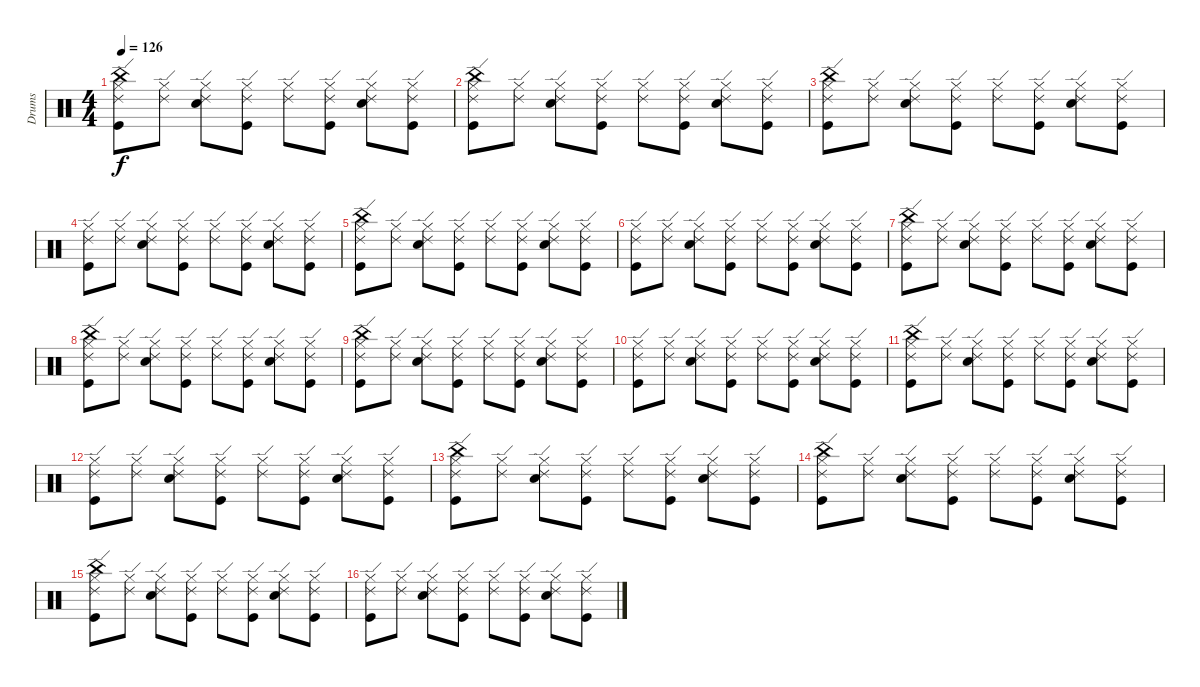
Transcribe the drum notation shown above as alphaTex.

\track ("Drums" "Drums") {instrument percussion}
\staff {score}
\articulation defaults
\ts (4 4)
\tempo 126
\clef neutral
\ks c
("Hi-Hat (closed)" "China (hit)" "Ride (edge) 2" "Kick (hit)").8{dy f} ("Hi-Hat (closed)" "Ride (edge) 2").8 ("Hi-Hat (closed)" "Ride (edge) 2" "Electric Snare (hit)").8 ("Hi-Hat (closed)" "Ride (edge) 2" "Kick (hit)").8 ("Hi-Hat (closed)" "Ride (edge) 2").8 ("Hi-Hat (closed)" "Ride (edge) 2" "Kick (hit)").8 ("Hi-Hat (closed)" "Ride (edge) 2" "Electric Snare (hit)").8 ("Hi-Hat (closed)" "Ride (edge) 2" "Kick (hit)").8 |
("Hi-Hat (closed)" "China (hit)" "Ride (edge) 2" "Kick (hit)").8 ("Hi-Hat (closed)" "Ride (edge) 2").8 ("Hi-Hat (closed)" "Ride (edge) 2" "Electric Snare (hit)").8 ("Hi-Hat (closed)" "Ride (edge) 2" "Kick (hit)").8 ("Hi-Hat (closed)" "Ride (edge) 2").8 ("Hi-Hat (closed)" "Ride (edge) 2" "Kick (hit)").8 ("Hi-Hat (closed)" "Ride (edge) 2" "Electric Snare (hit)").8 ("Hi-Hat (closed)" "Ride (edge) 2" "Kick (hit)").8 |
("Hi-Hat (closed)" "China (hit)" "Ride (edge) 2" "Kick (hit)").8 ("Hi-Hat (closed)" "Ride (edge) 2").8 ("Hi-Hat (closed)" "Ride (edge) 2" "Electric Snare (hit)").8 ("Hi-Hat (closed)" "Ride (edge) 2" "Kick (hit)").8 ("Hi-Hat (closed)" "Ride (edge) 2").8 ("Hi-Hat (closed)" "Ride (edge) 2" "Kick (hit)").8 ("Hi-Hat (closed)" "Ride (edge) 2" "Electric Snare (hit)").8 ("Hi-Hat (closed)" "Ride (edge) 2" "Kick (hit)").8 |
("Hi-Hat (closed)" "Ride (edge) 2" "Kick (hit)").8 ("Hi-Hat (closed)" "Ride (edge) 2").8 ("Hi-Hat (closed)" "Ride (edge) 2" "Electric Snare (hit)").8 ("Hi-Hat (closed)" "Ride (edge) 2" "Kick (hit)").8 ("Hi-Hat (closed)" "Ride (edge) 2").8 ("Hi-Hat (closed)" "Ride (edge) 2" "Kick (hit)").8 ("Hi-Hat (closed)" "Ride (edge) 2" "Electric Snare (hit)").8 ("Hi-Hat (closed)" "Ride (edge) 2" "Kick (hit)").8 |
("Hi-Hat (closed)" "China (hit)" "Ride (edge) 2" "Kick (hit)").8 ("Hi-Hat (closed)" "Ride (edge) 2").8 ("Hi-Hat (closed)" "Ride (edge) 2" "Electric Snare (hit)").8 ("Hi-Hat (closed)" "Ride (edge) 2" "Kick (hit)").8 ("Hi-Hat (closed)" "Ride (edge) 2").8 ("Hi-Hat (closed)" "Ride (edge) 2" "Kick (hit)").8 ("Hi-Hat (closed)" "Ride (edge) 2" "Electric Snare (hit)").8 ("Hi-Hat (closed)" "Ride (edge) 2" "Kick (hit)").8 |
("Hi-Hat (closed)" "Ride (edge) 2" "Kick (hit)").8 ("Hi-Hat (closed)" "Ride (edge) 2").8 ("Hi-Hat (closed)" "Ride (edge) 2" "Electric Snare (hit)").8 ("Hi-Hat (closed)" "Ride (edge) 2" "Kick (hit)").8 ("Hi-Hat (closed)" "Ride (edge) 2").8 ("Hi-Hat (closed)" "Ride (edge) 2" "Kick (hit)").8 ("Hi-Hat (closed)" "Ride (edge) 2" "Electric Snare (hit)").8 ("Hi-Hat (closed)" "Ride (edge) 2" "Kick (hit)").8 |
("Hi-Hat (closed)" "China (hit)" "Ride (edge) 2" "Kick (hit)").8 ("Hi-Hat (closed)" "Ride (edge) 2").8 ("Hi-Hat (closed)" "Ride (edge) 2" "Electric Snare (hit)").8 ("Hi-Hat (closed)" "Ride (edge) 2" "Kick (hit)").8 ("Hi-Hat (closed)" "Ride (edge) 2").8 ("Hi-Hat (closed)" "Ride (edge) 2" "Kick (hit)").8 ("Hi-Hat (closed)" "Ride (edge) 2" "Electric Snare (hit)").8 ("Hi-Hat (closed)" "Ride (edge) 2" "Kick (hit)").8 |
("Hi-Hat (closed)" "China (hit)" "Ride (edge) 2" "Kick (hit)").8 ("Hi-Hat (closed)" "Ride (edge) 2").8 ("Hi-Hat (closed)" "Ride (edge) 2" "Electric Snare (hit)").8 ("Hi-Hat (closed)" "Ride (edge) 2" "Kick (hit)").8 ("Hi-Hat (closed)" "Ride (edge) 2").8 ("Hi-Hat (closed)" "Ride (edge) 2" "Kick (hit)").8 ("Hi-Hat (closed)" "Ride (edge) 2" "Electric Snare (hit)").8 ("Hi-Hat (closed)" "Ride (edge) 2" "Kick (hit)").8 |
("Hi-Hat (closed)" "China (hit)" "Ride (edge) 2" "Kick (hit)").8 ("Hi-Hat (closed)" "Ride (edge) 2").8 ("Hi-Hat (closed)" "Ride (edge) 2" "Electric Snare (hit)").8 ("Hi-Hat (closed)" "Ride (edge) 2" "Kick (hit)").8 ("Hi-Hat (closed)" "Ride (edge) 2").8 ("Hi-Hat (closed)" "Ride (edge) 2" "Kick (hit)").8 ("Hi-Hat (closed)" "Ride (edge) 2" "Electric Snare (hit)").8 ("Hi-Hat (closed)" "Ride (edge) 2" "Kick (hit)").8 |
("Hi-Hat (closed)" "Ride (edge) 2" "Kick (hit)").8 ("Hi-Hat (closed)" "Ride (edge) 2").8 ("Hi-Hat (closed)" "Ride (edge) 2" "Electric Snare (hit)").8 ("Hi-Hat (closed)" "Ride (edge) 2" "Kick (hit)").8 ("Hi-Hat (closed)" "Ride (edge) 2").8 ("Hi-Hat (closed)" "Ride (edge) 2" "Kick (hit)").8 ("Hi-Hat (closed)" "Ride (edge) 2" "Electric Snare (hit)").8 ("Hi-Hat (closed)" "Ride (edge) 2" "Kick (hit)").8 |
("Hi-Hat (closed)" "China (hit)" "Ride (edge) 2" "Kick (hit)").8 ("Hi-Hat (closed)" "Ride (edge) 2").8 ("Hi-Hat (closed)" "Ride (edge) 2" "Electric Snare (hit)").8 ("Hi-Hat (closed)" "Ride (edge) 2" "Kick (hit)").8 ("Hi-Hat (closed)" "Ride (edge) 2").8 ("Hi-Hat (closed)" "Ride (edge) 2" "Kick (hit)").8 ("Hi-Hat (closed)" "Ride (edge) 2" "Electric Snare (hit)").8 ("Hi-Hat (closed)" "Ride (edge) 2" "Kick (hit)").8 |
("Hi-Hat (closed)" "Ride (edge) 2" "Kick (hit)").8 ("Hi-Hat (closed)" "Ride (edge) 2").8 ("Hi-Hat (closed)" "Ride (edge) 2" "Electric Snare (hit)").8 ("Hi-Hat (closed)" "Ride (edge) 2" "Kick (hit)").8 ("Hi-Hat (closed)" "Ride (edge) 2").8 ("Hi-Hat (closed)" "Ride (edge) 2" "Kick (hit)").8 ("Hi-Hat (closed)" "Ride (edge) 2" "Electric Snare (hit)").8 ("Hi-Hat (closed)" "Ride (edge) 2" "Kick (hit)").8 |
("Hi-Hat (closed)" "China (hit)" "Ride (edge) 2" "Kick (hit)").8 ("Hi-Hat (closed)" "Ride (edge) 2").8 ("Hi-Hat (closed)" "Ride (edge) 2" "Electric Snare (hit)").8 ("Hi-Hat (closed)" "Ride (edge) 2" "Kick (hit)").8 ("Hi-Hat (closed)" "Ride (edge) 2").8 ("Hi-Hat (closed)" "Ride (edge) 2" "Kick (hit)").8 ("Hi-Hat (closed)" "Ride (edge) 2" "Electric Snare (hit)").8 ("Hi-Hat (closed)" "Ride (edge) 2" "Kick (hit)").8 |
("Hi-Hat (closed)" "China (hit)" "Ride (edge) 2" "Kick (hit)").8 ("Hi-Hat (closed)" "Ride (edge) 2").8 ("Hi-Hat (closed)" "Ride (edge) 2" "Electric Snare (hit)").8 ("Hi-Hat (closed)" "Ride (edge) 2" "Kick (hit)").8 ("Hi-Hat (closed)" "Ride (edge) 2").8 ("Hi-Hat (closed)" "Ride (edge) 2" "Kick (hit)").8 ("Hi-Hat (closed)" "Ride (edge) 2" "Electric Snare (hit)").8 ("Hi-Hat (closed)" "Ride (edge) 2" "Kick (hit)").8 |
("Hi-Hat (closed)" "China (hit)" "Ride (edge) 2" "Kick (hit)").8 ("Hi-Hat (closed)" "Ride (edge) 2").8 ("Hi-Hat (closed)" "Ride (edge) 2" "Electric Snare (hit)").8 ("Hi-Hat (closed)" "Ride (edge) 2" "Kick (hit)").8 ("Hi-Hat (closed)" "Ride (edge) 2").8 ("Hi-Hat (closed)" "Ride (edge) 2" "Kick (hit)").8 ("Hi-Hat (closed)" "Ride (edge) 2" "Electric Snare (hit)").8 ("Hi-Hat (closed)" "Ride (edge) 2" "Kick (hit)").8 |
("Hi-Hat (closed)" "Ride (edge) 2" "Kick (hit)").8 ("Hi-Hat (closed)" "Ride (edge) 2").8 ("Hi-Hat (closed)" "Ride (edge) 2" "Electric Snare (hit)").8 ("Hi-Hat (closed)" "Ride (edge) 2" "Kick (hit)").8 ("Hi-Hat (closed)" "Ride (edge) 2").8 ("Hi-Hat (closed)" "Ride (edge) 2" "Kick (hit)").8 ("Hi-Hat (closed)" "Ride (edge) 2" "Electric Snare (hit)").8 ("Hi-Hat (closed)" "Ride (edge) 2" "Kick (hit)").8
